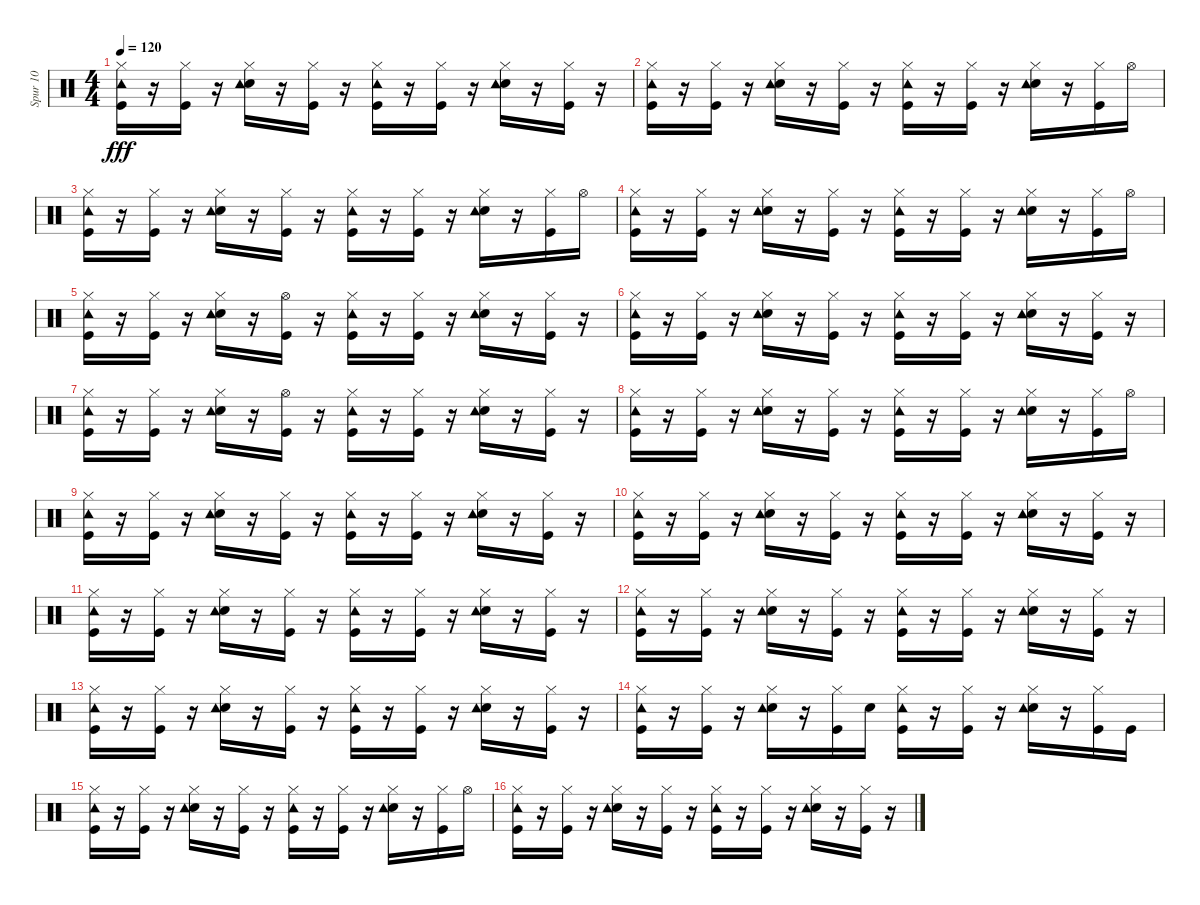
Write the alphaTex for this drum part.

\track ("Spur 10" "Spur 10") {instrument percussion}
\staff {score}
\articulation defaults
\ts (4 4)
\tempo 120
\clef neutral
\ks c
("Kick (hit)" "Hi-Hat (closed)" "Tambourine (hit)").16{dy fff} r.16 ("Kick (hit)" "Hi-Hat (closed)").16 r.16 ("Snare (hit) 2" "Hi-Hat (closed)" "Tambourine (hit)").16 r.16 ("Kick (hit)" "Hi-Hat (closed)").16 r.16 ("Kick (hit)" "Hi-Hat (closed)" "Tambourine (hit)").16 r.16 ("Kick (hit)" "Hi-Hat (closed)").16 r.16 ("Snare (hit) 2" "Hi-Hat (closed)" "Tambourine (hit)").16 r.16 ("Kick (hit)" "Hi-Hat (closed)").16 r.16 |
("Kick (hit)" "Hi-Hat (closed)" "Tambourine (hit)").16 r.16 ("Kick (hit)" "Hi-Hat (closed)").16 r.16 ("Snare (hit) 2" "Hi-Hat (closed)" "Tambourine (hit)").16 r.16 ("Kick (hit)" "Hi-Hat (closed)").16 r.16 ("Kick (hit)" "Hi-Hat (closed)" "Tambourine (hit)").16 r.16 ("Kick (hit)" "Hi-Hat (closed)").16 r.16 ("Snare (hit) 2" "Hi-Hat (closed)" "Tambourine (hit)").16 r.16 ("Kick (hit)" "Hi-Hat (closed)").16 "Hi-Hat (open)".16 |
("Kick (hit)" "Hi-Hat (closed)" "Tambourine (hit)").16 r.16 ("Kick (hit)" "Hi-Hat (closed)").16 r.16 ("Snare (hit) 2" "Hi-Hat (closed)" "Tambourine (hit)").16 r.16 ("Kick (hit)" "Hi-Hat (closed)").16 r.16 ("Kick (hit)" "Hi-Hat (closed)" "Tambourine (hit)").16 r.16 ("Kick (hit)" "Hi-Hat (closed)").16 r.16 ("Snare (hit) 2" "Hi-Hat (closed)" "Tambourine (hit)").16 r.16 ("Kick (hit)" "Hi-Hat (closed)").16 "Hi-Hat (open)".16 |
("Kick (hit)" "Hi-Hat (closed)" "Tambourine (hit)").16 r.16 ("Kick (hit)" "Hi-Hat (closed)").16 r.16 ("Snare (hit) 2" "Hi-Hat (closed)" "Tambourine (hit)").16 r.16 ("Kick (hit)" "Hi-Hat (closed)").16 r.16 ("Kick (hit)" "Hi-Hat (closed)" "Tambourine (hit)").16 r.16 ("Kick (hit)" "Hi-Hat (closed)").16 r.16 ("Snare (hit) 2" "Hi-Hat (closed)" "Tambourine (hit)").16 r.16 ("Kick (hit)" "Hi-Hat (closed)").16 "Hi-Hat (open)".16 |
("Kick (hit)" "Hi-Hat (closed)" "Tambourine (hit)").16 r.16 ("Kick (hit)" "Hi-Hat (closed)").16 r.16 ("Snare (hit) 2" "Hi-Hat (closed)" "Tambourine (hit)").16 r.16 ("Kick (hit)" "Hi-Hat (open)").16 r.16 ("Kick (hit)" "Hi-Hat (closed)" "Tambourine (hit)").16 r.16 ("Kick (hit)" "Hi-Hat (closed)").16 r.16 ("Snare (hit) 2" "Hi-Hat (closed)" "Tambourine (hit)").16 r.16 ("Kick (hit)" "Hi-Hat (closed)").16 r.16 |
("Kick (hit)" "Hi-Hat (closed)" "Tambourine (hit)").16 r.16 ("Kick (hit)" "Hi-Hat (closed)").16 r.16 ("Snare (hit) 2" "Hi-Hat (closed)" "Tambourine (hit)").16 r.16 ("Kick (hit)" "Hi-Hat (closed)").16 r.16 ("Kick (hit)" "Hi-Hat (closed)" "Tambourine (hit)").16 r.16 ("Kick (hit)" "Hi-Hat (closed)").16 r.16 ("Snare (hit) 2" "Hi-Hat (closed)" "Tambourine (hit)").16 r.16 ("Kick (hit)" "Hi-Hat (closed)").16 r.16 |
("Kick (hit)" "Hi-Hat (closed)" "Tambourine (hit)").16 r.16 ("Kick (hit)" "Hi-Hat (closed)").16 r.16 ("Snare (hit) 2" "Hi-Hat (closed)" "Tambourine (hit)").16 r.16 ("Kick (hit)" "Hi-Hat (open)").16 r.16 ("Kick (hit)" "Hi-Hat (closed)" "Tambourine (hit)").16 r.16 ("Kick (hit)" "Hi-Hat (closed)").16 r.16 ("Snare (hit) 2" "Hi-Hat (closed)" "Tambourine (hit)").16 r.16 ("Kick (hit)" "Hi-Hat (closed)").16 r.16 |
("Kick (hit)" "Hi-Hat (closed)" "Tambourine (hit)").16 r.16 ("Kick (hit)" "Hi-Hat (closed)").16 r.16 ("Snare (hit) 2" "Hi-Hat (closed)" "Tambourine (hit)").16 r.16 ("Kick (hit)" "Hi-Hat (closed)").16 r.16 ("Kick (hit)" "Hi-Hat (closed)" "Tambourine (hit)").16 r.16 ("Kick (hit)" "Hi-Hat (closed)").16 r.16 ("Snare (hit) 2" "Hi-Hat (closed)" "Tambourine (hit)").16 r.16 ("Kick (hit)" "Hi-Hat (closed)").16 "Hi-Hat (open)".16 |
("Kick (hit)" "Hi-Hat (closed)" "Tambourine (hit)").16 r.16 ("Kick (hit)" "Hi-Hat (closed)").16 r.16 ("Snare (hit) 2" "Hi-Hat (closed)" "Tambourine (hit)").16 r.16 ("Kick (hit)" "Hi-Hat (closed)").16 r.16 ("Kick (hit)" "Hi-Hat (closed)" "Tambourine (hit)").16 r.16 ("Kick (hit)" "Hi-Hat (closed)").16 r.16 ("Snare (hit) 2" "Hi-Hat (closed)" "Tambourine (hit)").16 r.16 ("Kick (hit)" "Hi-Hat (closed)").16 r.16 |
("Kick (hit)" "Hi-Hat (closed)" "Tambourine (hit)").16 r.16 ("Kick (hit)" "Hi-Hat (closed)").16 r.16 ("Snare (hit) 2" "Hi-Hat (closed)" "Tambourine (hit)").16 r.16 ("Kick (hit)" "Hi-Hat (closed)").16 r.16 ("Kick (hit)" "Hi-Hat (closed)" "Tambourine (hit)").16 r.16 ("Kick (hit)" "Hi-Hat (closed)").16 r.16 ("Snare (hit) 2" "Hi-Hat (closed)" "Tambourine (hit)").16 r.16 ("Kick (hit)" "Hi-Hat (closed)").16 r.16 |
("Kick (hit)" "Hi-Hat (closed)" "Tambourine (hit)").16 r.16 ("Kick (hit)" "Hi-Hat (closed)").16 r.16 ("Snare (hit) 2" "Hi-Hat (closed)" "Tambourine (hit)").16 r.16 ("Kick (hit)" "Hi-Hat (closed)").16 r.16 ("Kick (hit)" "Hi-Hat (closed)" "Tambourine (hit)").16 r.16 ("Kick (hit)" "Hi-Hat (closed)").16 r.16 ("Snare (hit) 2" "Hi-Hat (closed)" "Tambourine (hit)").16 r.16 ("Kick (hit)" "Hi-Hat (closed)").16 r.16 |
("Kick (hit)" "Hi-Hat (closed)" "Tambourine (hit)").16 r.16 ("Kick (hit)" "Hi-Hat (closed)").16 r.16 ("Snare (hit) 2" "Hi-Hat (closed)" "Tambourine (hit)").16 r.16 ("Kick (hit)" "Hi-Hat (closed)").16 r.16 ("Kick (hit)" "Hi-Hat (closed)" "Tambourine (hit)").16 r.16 ("Kick (hit)" "Hi-Hat (closed)").16 r.16 ("Snare (hit) 2" "Hi-Hat (closed)" "Tambourine (hit)").16 r.16 ("Kick (hit)" "Hi-Hat (closed)").16 r.16 |
("Kick (hit)" "Hi-Hat (closed)" "Tambourine (hit)").16 r.16 ("Kick (hit)" "Hi-Hat (closed)").16 r.16 ("Snare (hit) 2" "Hi-Hat (closed)" "Tambourine (hit)").16 r.16 ("Kick (hit)" "Hi-Hat (closed)").16 r.16 ("Kick (hit)" "Hi-Hat (closed)" "Tambourine (hit)").16 r.16 ("Kick (hit)" "Hi-Hat (closed)").16 r.16 ("Snare (hit) 2" "Hi-Hat (closed)" "Tambourine (hit)").16 r.16 ("Kick (hit)" "Hi-Hat (closed)").16 r.16 |
("Kick (hit)" "Hi-Hat (closed)" "Tambourine (hit)").16 r.16 ("Kick (hit)" "Hi-Hat (closed)").16 r.16 ("Snare (hit) 2" "Hi-Hat (closed)" "Tambourine (hit)").16 r.16 ("Kick (hit)" "Hi-Hat (closed)").16 "Snare (hit) 2".16 ("Kick (hit)" "Hi-Hat (closed)" "Tambourine (hit)").16 r.16 ("Kick (hit)" "Hi-Hat (closed)").16 r.16 ("Snare (hit) 2" "Hi-Hat (closed)" "Tambourine (hit)").16 r.16 ("Kick (hit)" "Hi-Hat (closed)").16 "Kick (hit)".16 |
("Kick (hit)" "Hi-Hat (closed)" "Tambourine (hit)").16 r.16 ("Kick (hit)" "Hi-Hat (closed)").16 r.16 ("Snare (hit) 2" "Hi-Hat (closed)" "Tambourine (hit)").16 r.16 ("Kick (hit)" "Hi-Hat (closed)").16 r.16 ("Kick (hit)" "Hi-Hat (closed)" "Tambourine (hit)").16 r.16 ("Kick (hit)" "Hi-Hat (closed)").16 r.16 ("Snare (hit) 2" "Hi-Hat (closed)" "Tambourine (hit)").16 r.16 ("Kick (hit)" "Hi-Hat (closed)").16 "Hi-Hat (open)".16 |
("Kick (hit)" "Hi-Hat (closed)" "Tambourine (hit)").16 r.16 ("Kick (hit)" "Hi-Hat (closed)").16 r.16 ("Snare (hit) 2" "Hi-Hat (closed)" "Tambourine (hit)").16 r.16 ("Kick (hit)" "Hi-Hat (closed)").16 r.16 ("Kick (hit)" "Hi-Hat (closed)" "Tambourine (hit)").16 r.16 ("Kick (hit)" "Hi-Hat (closed)").16 r.16 ("Snare (hit) 2" "Hi-Hat (closed)" "Tambourine (hit)").16 r.16 ("Kick (hit)" "Hi-Hat (closed)").16 r.16
